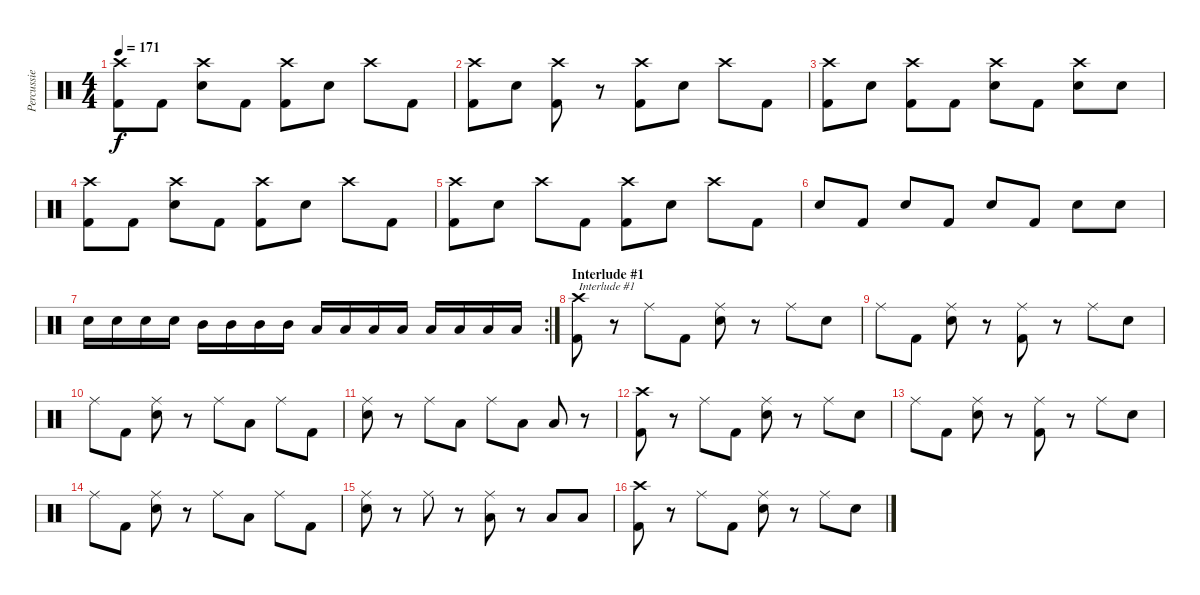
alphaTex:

\track ("Percussie" "Percussie") {instrument percussion}
\staff {score}
\articulation defaults
\ts (4 4)
\tempo 171
\clef neutral
\ks c
("Crash high (hit)" "Kick (hit) 2").8{dy f} "Kick (hit) 2".8 ("Crash high (hit)" "Snare (hit) 2").8 "Kick (hit) 2".8 ("Crash high (hit)" "Kick (hit) 2").8 "Snare (hit) 2".8 "Crash high (hit)".8 "Kick (hit) 2".8 |
("Crash high (hit)" "Kick (hit) 2").8 "Snare (hit) 2".8 ("Crash high (hit)" "Kick (hit) 2").8 r.8 ("Crash high (hit)" "Kick (hit) 2").8 "Snare (hit) 2".8 "Crash high (hit)".8 "Kick (hit) 2".8 |
("Crash high (hit)" "Kick (hit) 2").8 "Snare (hit) 2".8 ("Crash high (hit)" "Kick (hit) 2").8 "Kick (hit) 2".8 ("Crash high (hit)" "Snare (hit) 2").8 "Kick (hit) 2".8 ("Crash high (hit)" "Snare (hit) 2").8 "Snare (hit) 2".8 |
("Crash high (hit)" "Kick (hit) 2").8 "Kick (hit) 2".8 ("Crash high (hit)" "Snare (hit) 2").8 "Kick (hit) 2".8 ("Crash high (hit)" "Kick (hit) 2").8 "Snare (hit) 2".8 "Crash high (hit)".8 "Kick (hit) 2".8 |
("Crash high (hit)" "Kick (hit) 2").8 "Snare (hit) 2".8 "Crash high (hit)".8 "Kick (hit) 2".8 ("Crash high (hit)" "Kick (hit) 2").8 "Snare (hit) 2".8 "Crash high (hit)".8 "Kick (hit) 2".8 |
"Snare (hit) 2".8 "Kick (hit) 2".8 "Snare (hit) 2".8 "Kick (hit) 2".8 "Snare (hit) 2".8 "Kick (hit) 2".8 "Snare (hit) 2".8 "Snare (hit) 2".8 |
\rc 2 "Snare (hit) 2".16 "Snare (hit) 2".16 "Snare (hit) 2".16 "Snare (hit) 2".16 "Mid Tom (hit)".16 "Mid Tom (hit)".16 "Mid Tom (hit)".16 "Mid Tom (hit)".16 "Low Tom (hit)".16 "Low Tom (hit)".16 "Low Tom (hit)".16 "Low Tom (hit)".16 "Low Floor Tom (hit)".16 "Low Floor Tom (hit)".16 "Low Floor Tom (hit)".16 "Low Floor Tom (hit)".16
|
\section ("" "Interlude #1")
("Crash high (hit)" "Kick (hit) 2").8{txt "Interlude #1"} r.8 "Ride (middle)".8 "Kick (hit) 2".8 ("Ride (middle)" "Snare (hit) 2").8 r.8 "Ride (middle)".8 "Snare (hit) 2".8 |
"Ride (middle)".8 "Kick (hit) 2".8 ("Ride (middle)" "Snare (hit) 2").8 r.8 ("Ride (middle)" "Kick (hit) 2").8 r.8 "Ride (middle)".8 "Snare (hit) 2".8 |
"Ride (middle)".8 "Kick (hit) 2".8 ("Ride (middle)" "Snare (hit) 2").8 r.8 "Ride (middle)".8 "Low Floor Tom (hit)".8 "Ride (middle)".8 "Kick (hit) 2".8 |
("Ride (middle)" "Snare (hit) 2").8 r.8 "Ride (middle)".8 "Low Tom (hit)".8 "Ride (middle)".8 "Low Floor Tom (hit)".8 "Low Floor Tom (hit)".8 r.8 |
("Crash high (hit)" "Kick (hit) 2").8 r.8 "Ride (middle)".8 "Kick (hit) 2".8 ("Ride (middle)" "Snare (hit) 2").8 r.8 "Ride (middle)".8 "Snare (hit) 2".8 |
"Ride (middle)".8 "Kick (hit) 2".8 ("Ride (middle)" "Snare (hit) 2").8 r.8 ("Ride (middle)" "Kick (hit) 2").8 r.8 "Ride (middle)".8 "Snare (hit) 2".8 |
"Ride (middle)".8 "Kick (hit) 2".8 ("Ride (middle)" "Snare (hit) 2").8 r.8 "Ride (middle)".8 "Low Floor Tom (hit)".8 "Ride (middle)".8 "Kick (hit) 2".8 |
("Ride (middle)" "Snare (hit) 2").8 r.8 "Ride (middle)".8 r.8 ("Ride (middle)" "Low Tom (hit)").8 r.8 "Low Floor Tom (hit)".8 "Low Floor Tom (hit)".8 |
("Crash high (hit)" "Kick (hit) 2").8 r.8 "Ride (middle)".8 "Kick (hit) 2".8 ("Ride (middle)" "Snare (hit) 2").8 r.8 "Ride (middle)".8 "Snare (hit) 2".8
